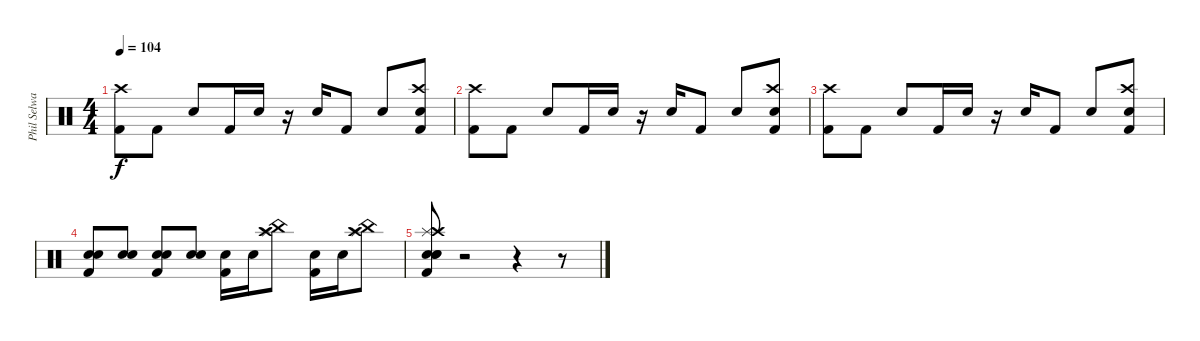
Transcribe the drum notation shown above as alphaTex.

\track ("Phil Selway" "Phil Selwa") {instrument percussion}
\staff {score}
\articulation defaults
\ts (4 4)
\tempo 104
\clef neutral
\ks c
("Kick (hit) 2" "Crash high (hit)").8{dy f} "Kick (hit) 2".8 "Electric Snare (hit)".8 "Kick (hit) 2".16 "Electric Snare (hit)".16 r.16 "Electric Snare (hit)".16 "Kick (hit) 2".8 "Electric Snare (hit)".8 ("Kick (hit) 2" "Crash high (hit)" "Electric Snare (hit)").8 |
("Kick (hit) 2" "Crash high (hit)").8 "Kick (hit) 2".8 "Electric Snare (hit)".8 "Kick (hit) 2".16 "Electric Snare (hit)".16 r.16 "Electric Snare (hit)".16 "Kick (hit) 2".8 "Electric Snare (hit)".8 ("Kick (hit) 2" "Crash high (hit)" "Electric Snare (hit)").8 |
("Kick (hit) 2" "Crash high (hit)").8 "Kick (hit) 2".8 "Electric Snare (hit)".8 "Kick (hit) 2".16 "Electric Snare (hit)".16 r.16 "Electric Snare (hit)".16 "Kick (hit) 2".8 "Electric Snare (hit)".8 ("Kick (hit) 2" "Crash high (hit)" "Electric Snare (hit)").8 |
("Electric Snare (hit)" "Snare (hit) 2" "Kick (hit) 2").8 ("Electric Snare (hit)" "Snare (hit) 2").8 ("Electric Snare (hit)" "Snare (hit) 2" "Kick (hit) 2").8 ("Electric Snare (hit)" "Snare (hit) 2").8 ("Electric Snare (hit)" "Kick (hit) 2").16 "Electric Snare (hit)".16 ("Splash (hit)" "China (hit)" "Crash high (hit)").8 ("Electric Snare (hit)" "Kick (hit) 2").16 "Electric Snare (hit)".16 ("Splash (hit)" "China (hit)" "Crash high (hit)").8 |
("Kick (hit) 2" "Snare (hit) 2" "Splash (hit)" "Crash high (hit)" "Electric Snare (hit)" "Hand Clap (hit)").8 r.2 r.4 r.8
